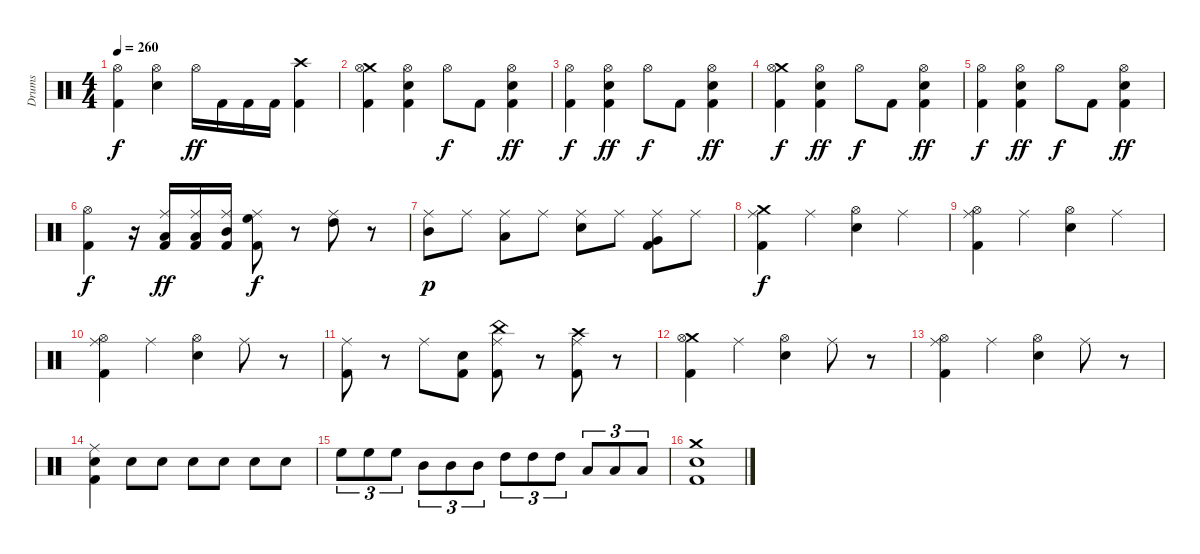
\track ("Drums" "Drums") {instrument percussion}
\staff {score}
\articulation defaults
\ts (4 4)
\tempo 260
\clef neutral
\ks c
("Hi-Hat (open)" "Kick (hit) 2").4{dy f} ("Hi-Hat (open)" "Electric Snare (hit)").4 "Hi-Hat (open)".16{dy ff} "Kick (hit) 2".16 "Kick (hit) 2".16 "Kick (hit) 2".16 ("Crash high (hit)" "Kick (hit) 2").4 |
("Crash medium (hit)" "Hi-Hat (open)" "Kick (hit) 2").4 ("Hi-Hat (open)" "Electric Snare (hit)" "Kick (hit) 2").4 "Hi-Hat (open)".8{dy f} "Kick (hit) 2".8 ("Hi-Hat (open)" "Electric Snare (hit)" "Kick (hit) 2").4{dy ff} |
("Hi-Hat (open)" "Kick (hit) 2").4{dy f} ("Hi-Hat (open)" "Electric Snare (hit)" "Kick (hit) 2").4{dy ff} "Hi-Hat (open)".8{dy f} "Kick (hit) 2".8 ("Hi-Hat (open)" "Electric Snare (hit)" "Kick (hit) 2").4{dy ff} |
("Crash medium (hit)" "Hi-Hat (open)" "Kick (hit) 2").4{dy f} ("Hi-Hat (open)" "Electric Snare (hit)" "Kick (hit) 2").4{dy ff} "Hi-Hat (open)".8{dy f} "Kick (hit) 2".8 ("Hi-Hat (open)" "Electric Snare (hit)" "Kick (hit) 2").4{dy ff} |
("Hi-Hat (open)" "Kick (hit) 2").4{dy f} ("Hi-Hat (open)" "Electric Snare (hit)" "Kick (hit) 2").4{dy ff} "Hi-Hat (open)".8{dy f} "Kick (hit) 2".8 ("Hi-Hat (open)" "Electric Snare (hit)" "Kick (hit) 2").4{dy ff} |
("Hi-Hat (open)" "Kick (hit) 2").4{dy f} r.16 ("Ride (middle)" "Low Tom (hit)" "Kick (hit) 2").16{dy ff} ("Ride (middle)" "Low Tom (hit)" "Kick (hit) 2").16 ("Ride (middle)" "Mid Tom (hit)" "Kick (hit) 2").16 ("Ride (middle)" "High Floor Tom (hit)" "Kick (hit) 2").8{dy f} r.8 ("Ride (middle)" "High Tom (hit)").8 r.8 |
("Ride (middle)" "Mid Tom (hit)").8{dy p} "Ride (middle)".8 ("Ride (middle)" "Low Tom (hit)").8 "Ride (middle)".8 ("Ride (middle)" "Electric Snare (hit)").8 "Ride (middle)".8 ("Ride (middle)" "Very Low Tom (hit)" "Kick (hit) 2").8 "Ride (middle)".8 |
("Ride (middle)" "Crash medium (hit)" "Kick (hit) 2").4{dy f} "Ride (middle)".4 ("Hi-Hat (open)" "Electric Snare (hit)").4 "Ride (middle)".4 |
("Ride (middle)" "Hi-Hat (open)" "Kick (hit) 2").4 "Ride (middle)".4 ("Hi-Hat (open)" "Electric Snare (hit)").4 "Ride (middle)".4 |
("Ride (middle)" "Hi-Hat (open)" "Kick (hit) 2").4 "Ride (middle)".4 ("Hi-Hat (open)" "Electric Snare (hit)").4 "Ride (middle)".8 r.8 |
("Ride (middle)" "Kick (hit) 2").8 r.8 "Ride (middle)".8 ("Electric Snare (hit)" "Kick (hit) 2").8 ("Ride (middle)" "China (hit)" "Kick (hit) 2").8 r.8 ("Ride (middle)" "Crash high (hit)" "Kick (hit) 2").8 r.8 |
("Crash medium (hit)" "Hi-Hat (open)" "Kick (hit) 2").4 "Ride (middle)".4 ("Hi-Hat (open)" "Electric Snare (hit)").4 "Ride (middle)".8 r.8 |
("Ride (middle)" "Hi-Hat (open)" "Kick (hit) 2").4 "Ride (middle)".4 ("Hi-Hat (open)" "Electric Snare (hit)").4 "Ride (middle)".8 r.8 |
("Ride (middle)" "Electric Snare (hit)" "Kick (hit) 2").4 "Electric Snare (hit)".8 "Electric Snare (hit)".8 "Electric Snare (hit)".8 "Electric Snare (hit)".8 "Electric Snare (hit)".8 "Electric Snare (hit)".8 |
"High Floor Tom (hit)".8{tu (3 2)} "High Floor Tom (hit)".8{tu (3 2)} "High Floor Tom (hit)".8{tu (3 2)} "Mid Tom (hit)".8{tu (3 2)} "Mid Tom (hit)".8{tu (3 2)} "Mid Tom (hit)".8{tu (3 2)} "High Tom (hit)".8{tu (3 2)} "High Tom (hit)".8{tu (3 2)} "High Tom (hit)".8{tu (3 2)} "Low Tom (hit)".8{tu (3 2)} "Low Tom (hit)".8{tu (3 2)} "Low Tom (hit)".8{tu (3 2)} |
("Crash medium (hit)" "Electric Snare (hit)" "Kick (hit) 2").1
